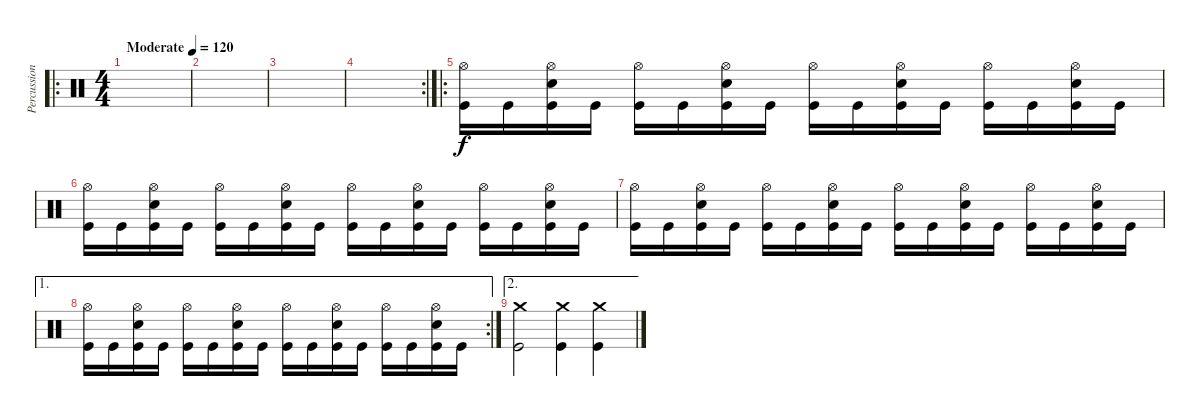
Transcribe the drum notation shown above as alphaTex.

\track ("Percussion" "Percussion") {instrument percussion}
\staff {score}
\articulation defaults
\ro
\ts (4 4)
\tempo (120 "Moderate")
\clef neutral
\ks c
|
|
|
\rc 2
|
\ro
("Hi-Hat (open)" "Kick (hit)").16 "Kick (hit)".16 ("Hi-Hat (open)" "Snare (hit) 2" "Kick (hit)").16 "Kick (hit)".16 ("Hi-Hat (open)" "Kick (hit)").16 "Kick (hit)".16 ("Hi-Hat (open)" "Snare (hit) 2" "Kick (hit)").16 "Kick (hit)".16 ("Hi-Hat (open)" "Kick (hit)").16 "Kick (hit)".16 ("Hi-Hat (open)" "Snare (hit) 2" "Kick (hit)").16 "Kick (hit)".16 ("Hi-Hat (open)" "Kick (hit)").16 "Kick (hit)".16 ("Hi-Hat (open)" "Snare (hit) 2" "Kick (hit)").16 "Kick (hit)".16 |
("Hi-Hat (open)" "Kick (hit)").16 "Kick (hit)".16 ("Hi-Hat (open)" "Snare (hit) 2" "Kick (hit)").16 "Kick (hit)".16 ("Hi-Hat (open)" "Kick (hit)").16 "Kick (hit)".16 ("Hi-Hat (open)" "Snare (hit) 2" "Kick (hit)").16 "Kick (hit)".16 ("Hi-Hat (open)" "Kick (hit)").16 "Kick (hit)".16 ("Hi-Hat (open)" "Snare (hit) 2" "Kick (hit)").16 "Kick (hit)".16 ("Hi-Hat (open)" "Kick (hit)").16 "Kick (hit)".16 ("Hi-Hat (open)" "Snare (hit) 2" "Kick (hit)").16 "Kick (hit)".16 |
("Hi-Hat (open)" "Kick (hit)").16 "Kick (hit)".16 ("Hi-Hat (open)" "Snare (hit) 2" "Kick (hit)").16 "Kick (hit)".16 ("Hi-Hat (open)" "Kick (hit)").16 "Kick (hit)".16 ("Hi-Hat (open)" "Snare (hit) 2" "Kick (hit)").16 "Kick (hit)".16 ("Hi-Hat (open)" "Kick (hit)").16 "Kick (hit)".16 ("Hi-Hat (open)" "Snare (hit) 2" "Kick (hit)").16 "Kick (hit)".16 ("Hi-Hat (open)" "Kick (hit)").16 "Kick (hit)".16 ("Hi-Hat (open)" "Snare (hit) 2" "Kick (hit)").16 "Kick (hit)".16 |
\ae 1
\rc 2
("Hi-Hat (open)" "Kick (hit)").16 "Kick (hit)".16 ("Hi-Hat (open)" "Snare (hit) 2" "Kick (hit)").16 "Kick (hit)".16 ("Hi-Hat (open)" "Kick (hit)").16 "Kick (hit)".16 ("Hi-Hat (open)" "Snare (hit) 2" "Kick (hit)").16 "Kick (hit)".16 ("Hi-Hat (open)" "Kick (hit)").16 "Kick (hit)".16 ("Hi-Hat (open)" "Snare (hit) 2" "Kick (hit)").16 "Kick (hit)".16 ("Hi-Hat (open)" "Kick (hit)").16 "Kick (hit)".16 ("Hi-Hat (open)" "Snare (hit) 2" "Kick (hit)").16 "Kick (hit)".16 |
\ae 2
("Crash medium (hit)" "Kick (hit)").2 ("Crash medium (hit)" "Kick (hit)").4 ("Crash medium (hit)" "Kick (hit)").4
